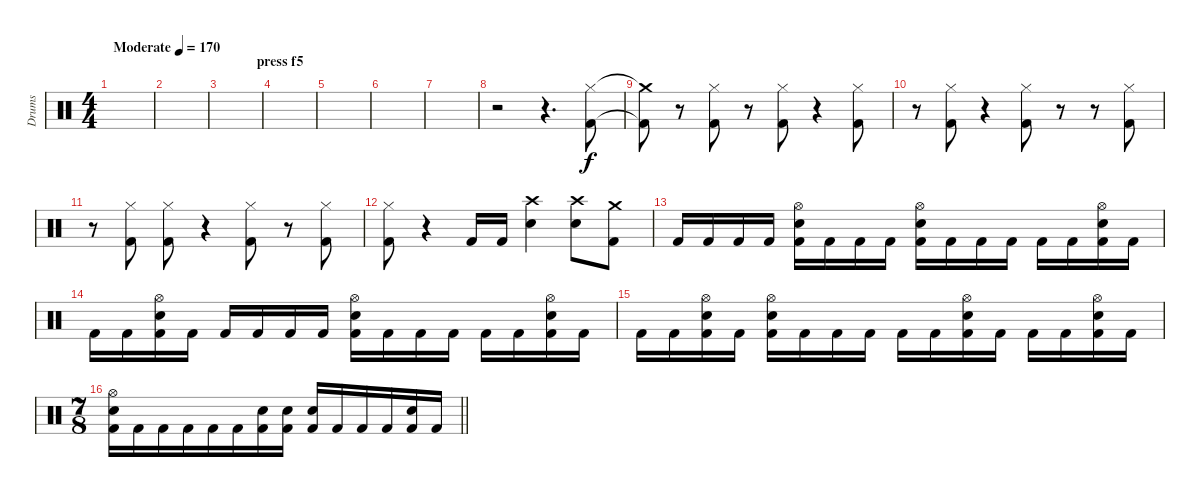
\track ("Drums" "Drums") {instrument percussion}
\staff {score}
\articulation defaults
\ts (4 4)
\section ("" "                                         press f5")
\tempo (170 "Moderate")
\clef neutral
\ks c
|
|
|
|
|
|
|
r.2 r.4{d} ("Hi-Hat (closed)" "Kick (hit) 2").8 |
("Crash medium (hit)"{t} "Kick (hit) 2"{t}).8 r.8 ("Hi-Hat (closed)" "Kick (hit) 2").8 r.8 ("Hi-Hat (closed)" "Kick (hit) 2").8 r.4 ("Hi-Hat (closed)" "Kick (hit) 2").8 |
r.8 ("Hi-Hat (closed)" "Kick (hit) 2").8 r.4 ("Hi-Hat (closed)" "Kick (hit) 2").8 r.8 r.8 ("Hi-Hat (closed)" "Kick (hit) 2").8 |
r.8 ("Hi-Hat (closed)" "Kick (hit) 2").8 ("Hi-Hat (closed)" "Kick (hit) 2").8 r.4 ("Hi-Hat (closed)" "Kick (hit) 2").8 r.8 ("Hi-Hat (closed)" "Kick (hit) 2").8 |
("Hi-Hat (closed)" "Kick (hit) 2").8 r.4 "Kick (hit) 2".16 "Kick (hit) 2".16 ("Crash high (hit)" "Snare (hit) 2").4 ("Crash high (hit)" "Snare (hit) 2").8 ("Crash medium (hit)" "Kick (hit) 2").8 |
"Kick (hit) 2".16 "Kick (hit) 2".16 "Kick (hit) 2".16 "Kick (hit) 2".16 ("Hi-Hat (open)" "Snare (hit) 2" "Kick (hit) 2").16 "Kick (hit) 2".16 "Kick (hit) 2".16 "Kick (hit) 2".16 ("Hi-Hat (open)" "Snare (hit) 2" "Kick (hit) 2").16 "Kick (hit) 2".16 "Kick (hit) 2".16 "Kick (hit) 2".16 "Kick (hit) 2".16 "Kick (hit) 2".16 ("Hi-Hat (open)" "Snare (hit) 2" "Kick (hit) 2").16 "Kick (hit) 2".16 |
"Kick (hit) 2".16 "Kick (hit) 2".16 ("Hi-Hat (open)" "Snare (hit) 2" "Kick (hit) 2").16 "Kick (hit) 2".16 "Kick (hit) 2".16 "Kick (hit) 2".16 "Kick (hit) 2".16 "Kick (hit) 2".16 ("Hi-Hat (open)" "Snare (hit) 2" "Kick (hit) 2").16 "Kick (hit) 2".16 "Kick (hit) 2".16 "Kick (hit) 2".16 "Kick (hit) 2".16 "Kick (hit) 2".16 ("Hi-Hat (open)" "Snare (hit) 2" "Kick (hit) 2").16 "Kick (hit) 2".16 |
"Kick (hit) 2".16 "Kick (hit) 2".16 ("Hi-Hat (open)" "Snare (hit) 2" "Kick (hit) 2").16 "Kick (hit) 2".16 ("Hi-Hat (open)" "Snare (hit) 2" "Kick (hit) 2").16 "Kick (hit) 2".16 "Kick (hit) 2".16 "Kick (hit) 2".16 "Kick (hit) 2".16 "Kick (hit) 2".16 ("Hi-Hat (open)" "Snare (hit) 2" "Kick (hit) 2").16 "Kick (hit) 2".16 "Kick (hit) 2".16 "Kick (hit) 2".16 ("Hi-Hat (open)" "Snare (hit) 2" "Kick (hit) 2").16 "Kick (hit) 2".16 |
\ts (7 8)
\barLineRight lightlight
("Hi-Hat (open)" "Snare (hit) 2" "Kick (hit) 2").16 "Kick (hit) 2".16 "Kick (hit) 2".16 "Kick (hit) 2".16 "Kick (hit) 2".16 "Kick (hit) 2".16 ("Snare (hit) 2" "Kick (hit) 2").16 ("Snare (hit) 2" "Kick (hit) 2").16 ("Snare (hit) 2" "Kick (hit) 2").16 "Kick (hit) 2".16 "Kick (hit) 2".16 "Kick (hit) 2".16 ("Snare (hit) 2" "Kick (hit) 2").16 "Kick (hit) 2".16
